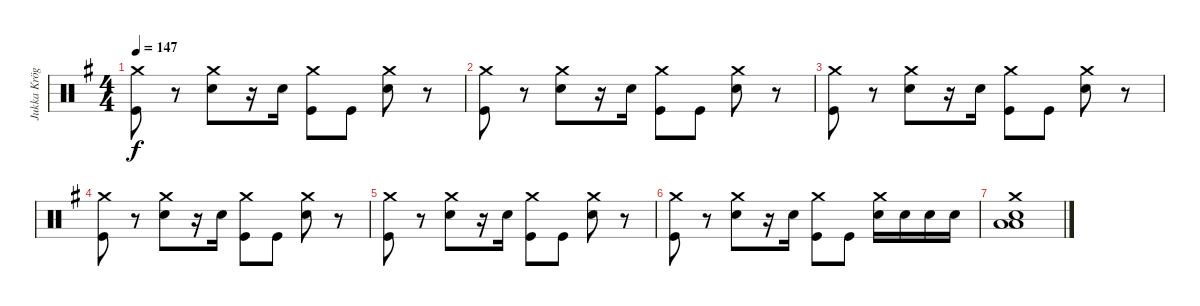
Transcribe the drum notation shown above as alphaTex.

\track ("Jukka Kröger" "Jukka Krög") {instrument percussion}
\staff {score}
\articulation defaults
\ts (4 4)
\tempo 147
\clef neutral
\ks eminor
("Crash medium (hit)" "Kick (hit)").8{dy f} r.8 ("Crash medium (hit)" "Snare (hit) 2").8 r.16 "Snare (hit) 2".16 ("Crash medium (hit)" "Kick (hit)").8 "Kick (hit)".8 ("Crash medium (hit)" "Snare (hit) 2").8 r.8 |
("Crash medium (hit)" "Kick (hit)").8 r.8 ("Crash medium (hit)" "Snare (hit) 2").8 r.16 "Snare (hit) 2".16 ("Crash medium (hit)" "Kick (hit)").8 "Kick (hit)".8 ("Crash medium (hit)" "Snare (hit) 2").8 r.8 |
("Crash medium (hit)" "Kick (hit)").8 r.8 ("Crash medium (hit)" "Snare (hit) 2").8 r.16 "Snare (hit) 2".16 ("Crash medium (hit)" "Kick (hit)").8 "Kick (hit)".8 ("Crash medium (hit)" "Snare (hit) 2").8 r.8 |
("Crash medium (hit)" "Kick (hit)").8 r.8 ("Crash medium (hit)" "Snare (hit) 2").8 r.16 "Snare (hit) 2".16 ("Crash medium (hit)" "Kick (hit)").8 "Kick (hit)".8 ("Crash medium (hit)" "Snare (hit) 2").8 r.8 |
("Crash medium (hit)" "Kick (hit)").8 r.8 ("Crash medium (hit)" "Snare (hit) 2").8 r.16 "Snare (hit) 2".16 ("Crash medium (hit)" "Kick (hit)").8 "Kick (hit)".8 ("Crash medium (hit)" "Snare (hit) 2").8 r.8 |
("Crash medium (hit)" "Kick (hit)").8 r.8 ("Crash medium (hit)" "Snare (hit) 2").8 r.16 "Snare (hit) 2".16 ("Crash medium (hit)" "Kick (hit)").8 "Kick (hit)".8 ("Crash medium (hit)" "Snare (hit) 2").16 "Snare (hit) 2".16 "Snare (hit) 2".16 "Snare (hit) 2".16 |
("Crash medium (hit)" "Snare (hit) 2" "Low Tom (hit)" "Low Floor Tom (hit)").1
